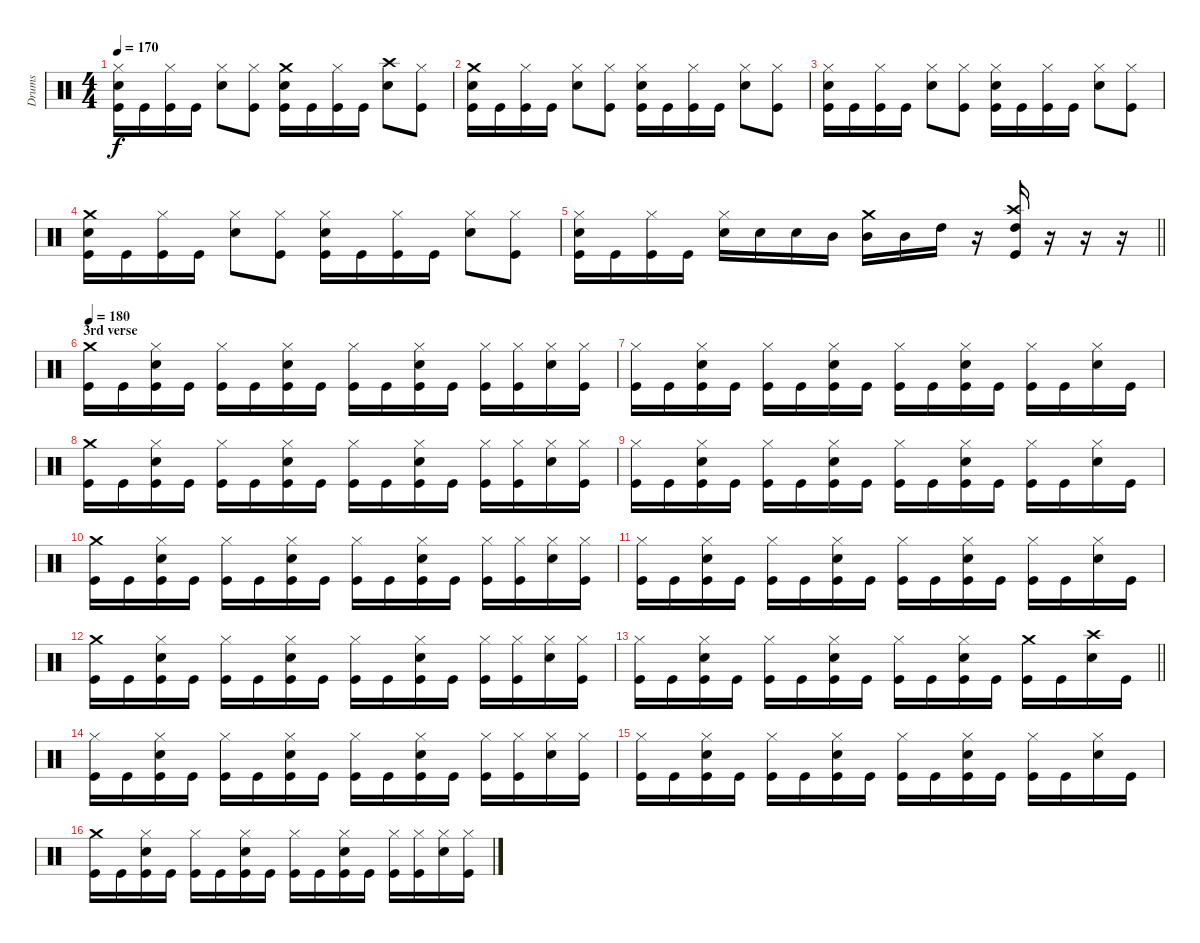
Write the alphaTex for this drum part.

\track ("Drums" "Drums") {instrument percussion}
\staff {score}
\articulation defaults
\ts (4 4)
\tempo 170
\clef neutral
\ks c
("Hi-Hat (closed)" "Snare (hit) 2" "Kick (hit)").16{dy f} "Kick (hit)".16 ("Hi-Hat (closed)" "Kick (hit)").16 "Kick (hit)".16 ("Hi-Hat (closed)" "Snare (hit) 2").8 ("Hi-Hat (closed)" "Kick (hit)").8 ("Crash medium (hit)" "Snare (hit) 2" "Kick (hit)").16 "Kick (hit)".16 ("Hi-Hat (closed)" "Kick (hit)").16 "Kick (hit)".16 ("Crash high (hit)" "Snare (hit) 2").8 ("Hi-Hat (closed)" "Kick (hit)").8 |
("Crash medium (hit)" "Snare (hit) 2" "Kick (hit)").16 "Kick (hit)".16 ("Hi-Hat (closed)" "Kick (hit)").16 "Kick (hit)".16 ("Hi-Hat (closed)" "Snare (hit) 2").8 ("Hi-Hat (closed)" "Kick (hit)").8 ("Hi-Hat (closed)" "Snare (hit) 2" "Kick (hit)").16 "Kick (hit)".16 ("Hi-Hat (closed)" "Kick (hit)").16 "Kick (hit)".16 ("Hi-Hat (closed)" "Snare (hit) 2").8 ("Hi-Hat (closed)" "Kick (hit)").8 |
("Hi-Hat (closed)" "Snare (hit) 2" "Kick (hit)").16 "Kick (hit)".16 ("Hi-Hat (closed)" "Kick (hit)").16 "Kick (hit)".16 ("Hi-Hat (closed)" "Snare (hit) 2").8 ("Hi-Hat (closed)" "Kick (hit)").8 ("Hi-Hat (closed)" "Snare (hit) 2" "Kick (hit)").16 "Kick (hit)".16 ("Hi-Hat (closed)" "Kick (hit)").16 "Kick (hit)".16 ("Hi-Hat (closed)" "Snare (hit) 2").8 ("Hi-Hat (closed)" "Kick (hit)").8 |
("Crash medium (hit)" "Snare (hit) 2" "Kick (hit)").16 "Kick (hit)".16 ("Hi-Hat (closed)" "Kick (hit)").16 "Kick (hit)".16 ("Hi-Hat (closed)" "Snare (hit) 2").8 ("Hi-Hat (closed)" "Kick (hit)").8 ("Hi-Hat (closed)" "Snare (hit) 2" "Kick (hit)").16 "Kick (hit)".16 ("Hi-Hat (closed)" "Kick (hit)").16 "Kick (hit)".16 ("Hi-Hat (closed)" "Snare (hit) 2").8 ("Hi-Hat (closed)" "Kick (hit)").8 |
\barLineRight lightlight
("Hi-Hat (closed)" "Snare (hit) 2" "Kick (hit)").16 "Kick (hit)".16 ("Hi-Hat (closed)" "Kick (hit)").16 "Kick (hit)".16 ("Hi-Hat (closed)" "Snare (hit) 2").16 "Snare (hit) 2".16 "Snare (hit) 2".16 "Mid Tom (hit)".16 ("Crash medium (hit)" "Mid Tom (hit)").16 "Mid Tom (hit)".16 "High Tom (hit)".16 r.16 ("Crash high (hit)" "High Tom (hit)" "Kick (hit)").16 r.16 r.16 r.16 |
\section ("" "3rd verse")
\tempo 180
("Crash medium (hit)" "Kick (hit)").16 "Kick (hit)".16 ("Hi-Hat (closed)" "Snare (hit) 2" "Kick (hit)").16 "Kick (hit)".16 ("Hi-Hat (closed)" "Kick (hit)").16 "Kick (hit)".16 ("Hi-Hat (closed)" "Snare (hit) 2" "Kick (hit)").16 "Kick (hit)".16 ("Hi-Hat (closed)" "Kick (hit)").16 "Kick (hit)".16 ("Hi-Hat (closed)" "Snare (hit) 2" "Kick (hit)").16 "Kick (hit)".16 ("Hi-Hat (closed)" "Kick (hit)").16 ("Hi-Hat (closed)" "Kick (hit)").16 ("Hi-Hat (closed)" "Snare (hit) 2").16 ("Hi-Hat (closed)" "Kick (hit)").16 |
("Hi-Hat (closed)" "Kick (hit)").16 "Kick (hit)".16 ("Hi-Hat (closed)" "Snare (hit) 2" "Kick (hit)").16 "Kick (hit)".16 ("Hi-Hat (closed)" "Kick (hit)").16 "Kick (hit)".16 ("Hi-Hat (closed)" "Snare (hit) 2" "Kick (hit)").16 "Kick (hit)".16 ("Hi-Hat (closed)" "Kick (hit)").16 "Kick (hit)".16 ("Hi-Hat (closed)" "Snare (hit) 2" "Kick (hit)").16 "Kick (hit)".16 ("Hi-Hat (closed)" "Kick (hit)").16 "Kick (hit)".16 ("Hi-Hat (closed)" "Snare (hit) 2").16 "Kick (hit)".16 |
("Crash medium (hit)" "Kick (hit)").16 "Kick (hit)".16 ("Hi-Hat (closed)" "Snare (hit) 2" "Kick (hit)").16 "Kick (hit)".16 ("Hi-Hat (closed)" "Kick (hit)").16 "Kick (hit)".16 ("Hi-Hat (closed)" "Snare (hit) 2" "Kick (hit)").16 "Kick (hit)".16 ("Hi-Hat (closed)" "Kick (hit)").16 "Kick (hit)".16 ("Hi-Hat (closed)" "Snare (hit) 2" "Kick (hit)").16 "Kick (hit)".16 ("Hi-Hat (closed)" "Kick (hit)").16 ("Hi-Hat (closed)" "Kick (hit)").16 ("Hi-Hat (closed)" "Snare (hit) 2").16 ("Hi-Hat (closed)" "Kick (hit)").16 |
("Hi-Hat (closed)" "Kick (hit)").16 "Kick (hit)".16 ("Hi-Hat (closed)" "Snare (hit) 2" "Kick (hit)").16 "Kick (hit)".16 ("Hi-Hat (closed)" "Kick (hit)").16 "Kick (hit)".16 ("Hi-Hat (closed)" "Snare (hit) 2" "Kick (hit)").16 "Kick (hit)".16 ("Hi-Hat (closed)" "Kick (hit)").16 "Kick (hit)".16 ("Hi-Hat (closed)" "Snare (hit) 2" "Kick (hit)").16 "Kick (hit)".16 ("Hi-Hat (closed)" "Kick (hit)").16 "Kick (hit)".16 ("Hi-Hat (closed)" "Snare (hit) 2").16 "Kick (hit)".16 |
("Crash medium (hit)" "Kick (hit)").16 "Kick (hit)".16 ("Hi-Hat (closed)" "Snare (hit) 2" "Kick (hit)").16 "Kick (hit)".16 ("Hi-Hat (closed)" "Kick (hit)").16 "Kick (hit)".16 ("Hi-Hat (closed)" "Snare (hit) 2" "Kick (hit)").16 "Kick (hit)".16 ("Hi-Hat (closed)" "Kick (hit)").16 "Kick (hit)".16 ("Hi-Hat (closed)" "Snare (hit) 2" "Kick (hit)").16 "Kick (hit)".16 ("Hi-Hat (closed)" "Kick (hit)").16 ("Hi-Hat (closed)" "Kick (hit)").16 ("Hi-Hat (closed)" "Snare (hit) 2").16 ("Hi-Hat (closed)" "Kick (hit)").16 |
("Hi-Hat (closed)" "Kick (hit)").16 "Kick (hit)".16 ("Hi-Hat (closed)" "Snare (hit) 2" "Kick (hit)").16 "Kick (hit)".16 ("Hi-Hat (closed)" "Kick (hit)").16 "Kick (hit)".16 ("Hi-Hat (closed)" "Snare (hit) 2" "Kick (hit)").16 "Kick (hit)".16 ("Hi-Hat (closed)" "Kick (hit)").16 "Kick (hit)".16 ("Hi-Hat (closed)" "Snare (hit) 2" "Kick (hit)").16 "Kick (hit)".16 ("Hi-Hat (closed)" "Kick (hit)").16 "Kick (hit)".16 ("Hi-Hat (closed)" "Snare (hit) 2").16 "Kick (hit)".16 |
("Crash medium (hit)" "Kick (hit)").16 "Kick (hit)".16 ("Hi-Hat (closed)" "Snare (hit) 2" "Kick (hit)").16 "Kick (hit)".16 ("Hi-Hat (closed)" "Kick (hit)").16 "Kick (hit)".16 ("Hi-Hat (closed)" "Snare (hit) 2" "Kick (hit)").16 "Kick (hit)".16 ("Hi-Hat (closed)" "Kick (hit)").16 "Kick (hit)".16 ("Hi-Hat (closed)" "Snare (hit) 2" "Kick (hit)").16 "Kick (hit)".16 ("Hi-Hat (closed)" "Kick (hit)").16 ("Hi-Hat (closed)" "Kick (hit)").16 ("Hi-Hat (closed)" "Snare (hit) 2").16 ("Hi-Hat (closed)" "Kick (hit)").16 |
\barLineRight lightlight
("Hi-Hat (closed)" "Kick (hit)").16 "Kick (hit)".16 ("Hi-Hat (closed)" "Snare (hit) 2" "Kick (hit)").16 "Kick (hit)".16 ("Hi-Hat (closed)" "Kick (hit)").16 "Kick (hit)".16 ("Hi-Hat (closed)" "Snare (hit) 2" "Kick (hit)").16 "Kick (hit)".16 ("Hi-Hat (closed)" "Kick (hit)").16 "Kick (hit)".16 ("Hi-Hat (closed)" "Snare (hit) 2" "Kick (hit)").16 "Kick (hit)".16 ("Crash medium (hit)" "Kick (hit)").16 "Kick (hit)".16 ("Crash high (hit)" "Snare (hit) 2").16 "Kick (hit)".16 |
("Hi-Hat (closed)" "Kick (hit)").16 "Kick (hit)".16 ("Hi-Hat (closed)" "Snare (hit) 2" "Kick (hit)").16 "Kick (hit)".16 ("Hi-Hat (closed)" "Kick (hit)").16 "Kick (hit)".16 ("Hi-Hat (closed)" "Snare (hit) 2" "Kick (hit)").16 "Kick (hit)".16 ("Hi-Hat (closed)" "Kick (hit)").16 "Kick (hit)".16 ("Hi-Hat (closed)" "Snare (hit) 2" "Kick (hit)").16 "Kick (hit)".16 ("Hi-Hat (closed)" "Kick (hit)").16 ("Hi-Hat (closed)" "Kick (hit)").16 ("Hi-Hat (closed)" "Snare (hit) 2").16 ("Hi-Hat (closed)" "Kick (hit)").16 |
("Hi-Hat (closed)" "Kick (hit)").16 "Kick (hit)".16 ("Hi-Hat (closed)" "Snare (hit) 2" "Kick (hit)").16 "Kick (hit)".16 ("Hi-Hat (closed)" "Kick (hit)").16 "Kick (hit)".16 ("Hi-Hat (closed)" "Snare (hit) 2" "Kick (hit)").16 "Kick (hit)".16 ("Hi-Hat (closed)" "Kick (hit)").16 "Kick (hit)".16 ("Hi-Hat (closed)" "Snare (hit) 2" "Kick (hit)").16 "Kick (hit)".16 ("Hi-Hat (closed)" "Kick (hit)").16 "Kick (hit)".16 ("Hi-Hat (closed)" "Snare (hit) 2").16 "Kick (hit)".16 |
("Crash medium (hit)" "Kick (hit)").16 "Kick (hit)".16 ("Hi-Hat (closed)" "Snare (hit) 2" "Kick (hit)").16 "Kick (hit)".16 ("Hi-Hat (closed)" "Kick (hit)").16 "Kick (hit)".16 ("Hi-Hat (closed)" "Snare (hit) 2" "Kick (hit)").16 "Kick (hit)".16 ("Hi-Hat (closed)" "Kick (hit)").16 "Kick (hit)".16 ("Hi-Hat (closed)" "Snare (hit) 2" "Kick (hit)").16 "Kick (hit)".16 ("Hi-Hat (closed)" "Kick (hit)").16 ("Hi-Hat (closed)" "Kick (hit)").16 ("Hi-Hat (closed)" "Snare (hit) 2").16 ("Hi-Hat (closed)" "Kick (hit)").16
